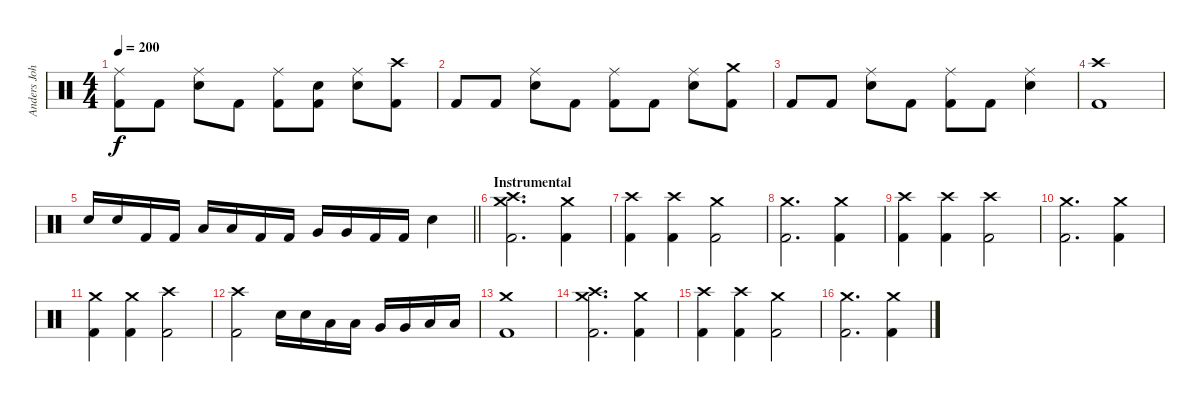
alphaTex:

\track ("Anders Johansson" "Anders Joh") {instrument percussion}
\staff {score}
\articulation defaults
\ts (4 4)
\tempo 200
\clef neutral
\ks c
("Ride (middle)" "Kick (hit) 2").8{dy f} "Kick (hit) 2".8 ("Ride (middle)" "Snare (hit) 2").8 "Kick (hit) 2".8 ("Ride (middle)" "Kick (hit) 2").8 ("Snare (hit) 2" "Kick (hit) 2").8 ("Ride (middle)" "Snare (hit) 2").8 ("Crash high (hit)" "Kick (hit) 2").8 |
"Kick (hit) 2".8 "Kick (hit) 2".8 ("Ride (middle)" "Snare (hit) 2").8 "Kick (hit) 2".8 ("Ride (middle)" "Kick (hit) 2").8 "Kick (hit) 2".8 ("Ride (middle)" "Snare (hit) 2").8 ("Crash medium (hit)" "Kick (hit) 2").8 |
"Kick (hit) 2".8 "Kick (hit) 2".8 ("Ride (middle)" "Snare (hit) 2").8 "Kick (hit) 2".8 ("Ride (middle)" "Kick (hit) 2").8 "Kick (hit) 2".8 ("Ride (middle)" "Snare (hit) 2").4 |
("Crash high (hit)" "Kick (hit) 2").1 |
\barLineRight lightlight "Snare (hit) 2".16 "Snare (hit) 2".16 "Kick (hit) 2".16 "Kick (hit) 2".16 "Low Tom (hit)".16 "Low Tom (hit)".16 "Kick (hit) 2".16 "Kick (hit) 2".16 "Very Low Tom (hit)".16 "Very Low Tom (hit)".16 "Kick (hit) 2".16 "Kick (hit) 2".16 "Snare (hit) 2".4
|
\section ("" "Instrumental")
("Crash medium (hit)" "Crash high (hit)" "Kick (hit) 2").2{d} ("Crash medium (hit)" "Kick (hit) 2").4 |
("Crash high (hit)" "Kick (hit) 2").4 ("Crash high (hit)" "Kick (hit) 2").4 ("Crash medium (hit)" "Kick (hit) 2").2 |
("Crash medium (hit)" "Kick (hit) 2").2{d} ("Crash medium (hit)" "Kick (hit) 2").4 |
("Crash high (hit)" "Kick (hit) 2").4 ("Crash high (hit)" "Kick (hit) 2").4 ("Crash high (hit)" "Kick (hit) 2").2 |
("Crash medium (hit)" "Kick (hit) 2").2{d} ("Crash medium (hit)" "Kick (hit) 2").4 |
("Crash medium (hit)" "Kick (hit) 2").4 ("Crash medium (hit)" "Kick (hit) 2").4 ("Crash high (hit)" "Kick (hit) 2").2 |
("Crash high (hit)" "Kick (hit) 2").2 "Snare (hit) 2".16 "Snare (hit) 2".16 "Low Tom (hit)".16 "Low Tom (hit)".16 "Very Low Tom (hit)".16 "Very Low Tom (hit)".16 "Low Floor Tom (hit)".16 "Low Floor Tom (hit)".16 |
("Crash medium (hit)" "Kick (hit) 2").1 |
("Crash medium (hit)" "Crash high (hit)" "Kick (hit) 2").2{d} ("Crash medium (hit)" "Kick (hit) 2").4 |
("Crash high (hit)" "Kick (hit) 2").4 ("Crash high (hit)" "Kick (hit) 2").4 ("Crash medium (hit)" "Kick (hit) 2").2 |
("Crash medium (hit)" "Kick (hit) 2").2{d} ("Crash medium (hit)" "Kick (hit) 2").4
